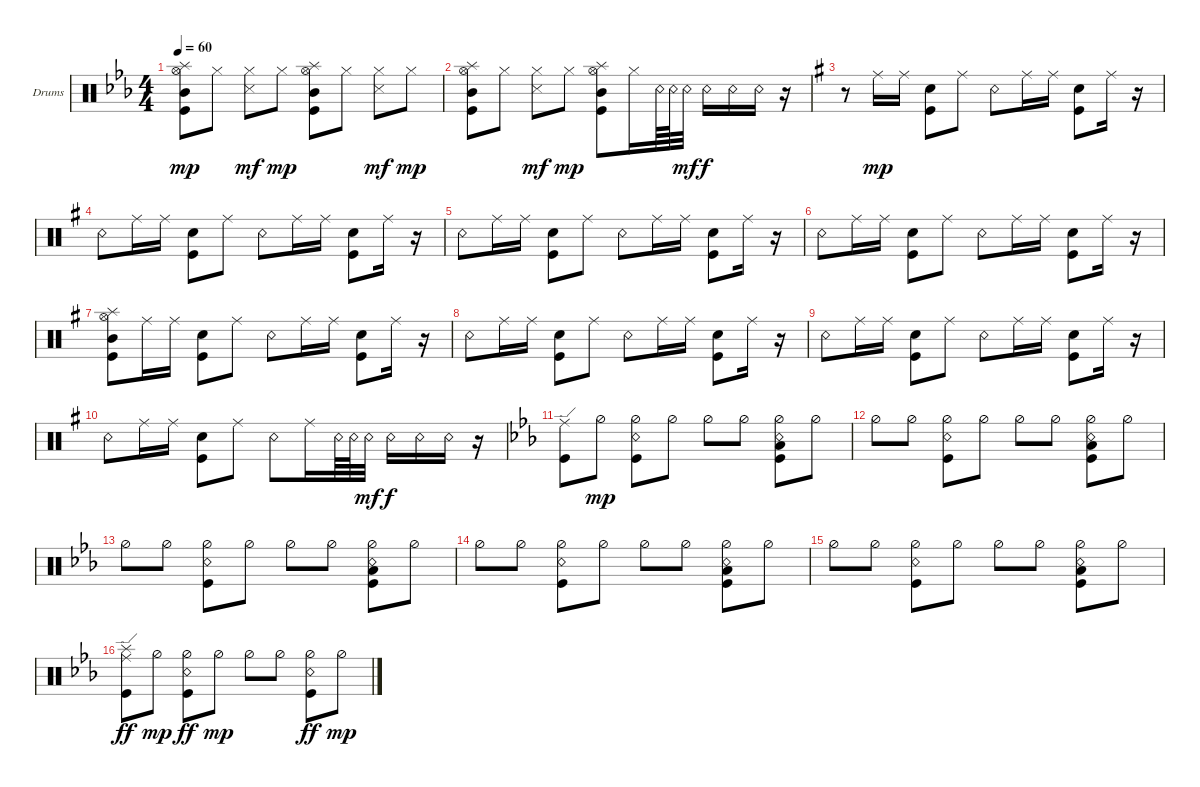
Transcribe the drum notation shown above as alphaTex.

\defaultSystemsLayout 4
\bracketExtendMode groupsimilarinstruments
\firstSystemTrackNameOrientation horizontal
\otherSystemsTrackNameOrientation horizontal
\track ("Drumkit (Darrell Sweet)" "Drums") {instrument percussion}
\staff {score}
\articulation defaults
\ts (4 4)
\tempo 60
\clef neutral
\ks cminor
("Kick (hit)" "Hi-Hat (open)" "Splash (hit)" "Mid Tom (hit)").8{dy mp} "Hi-Hat (closed)".8 ("Hi-Hat (closed)" "Snare (side stick) 3").8{dy mf} "Hi-Hat (closed)".8{dy mp} ("Kick (hit)" "Hi-Hat (open)" "Splash (hit)" "Mid Tom (hit)").8 "Hi-Hat (closed)".8 ("Hi-Hat (closed)" "Snare (side stick) 3").8{dy mf} "Hi-Hat (closed)".8{dy mp} |
("Kick (hit)" "Hi-Hat (open)" "Splash (hit)" "Mid Tom (hit)").8 "Hi-Hat (closed)".8 ("Hi-Hat (closed)" "Snare (side stick) 3").8{dy mf} "Hi-Hat (closed)".8{dy mp} ("Kick (hit)" "Hi-Hat (open)" "Splash (hit)" "Mid Tom (hit)").8 "Hi-Hat (closed)".16 "Snare (rim shot)".64 "Snare (rim shot)".64 "Snare (rim shot)".32{dy mf} "Snare (rim shot)".16{dy f} "Snare (rim shot)".16 "Snare (rim shot)".16 r.16 |
\ks eminor
r.8 "Ride (middle)".16{dy mp} "Ride (middle)".16 ("Snare (hit) 2" "Kick (hit)").8 "Ride (middle)".8 "Snare (rim shot)".8 "Ride (middle)".16 "Ride (middle)".16 ("Snare (hit) 2" "Kick (hit)").8 "Ride (middle)".16 r.16 |
"Snare (rim shot)".8 "Ride (middle)".16 "Ride (middle)".16 ("Snare (hit) 2" "Kick (hit)").8 "Ride (middle)".8 "Snare (rim shot)".8 "Ride (middle)".16 "Ride (middle)".16 ("Snare (hit) 2" "Kick (hit)").8 "Ride (middle)".16 r.16 |
"Snare (rim shot)".8 "Ride (middle)".16 "Ride (middle)".16 ("Snare (hit) 2" "Kick (hit)").8 "Ride (middle)".8 "Snare (rim shot)".8 "Ride (middle)".16 "Ride (middle)".16 ("Snare (hit) 2" "Kick (hit)").8 "Ride (middle)".16 r.16 |
"Snare (rim shot)".8 "Ride (middle)".16 "Ride (middle)".16 ("Snare (hit) 2" "Kick (hit)").8 "Ride (middle)".8 "Snare (rim shot)".8 "Ride (middle)".16 "Ride (middle)".16 ("Snare (hit) 2" "Kick (hit)").8 "Ride (middle)".16 r.16 |
("Kick (hit)" "Hi-Hat (open)" "Splash (hit)" "Mid Tom (hit)").8 "Ride (middle)".16 "Ride (middle)".16 ("Snare (hit) 2" "Kick (hit)").8 "Ride (middle)".8 "Snare (rim shot)".8 "Ride (middle)".16 "Ride (middle)".16 ("Snare (hit) 2" "Kick (hit)").8 "Ride (middle)".16 r.16 |
"Snare (rim shot)".8 "Ride (middle)".16 "Ride (middle)".16 ("Snare (hit) 2" "Kick (hit)").8 "Ride (middle)".8 "Snare (rim shot)".8 "Ride (middle)".16 "Ride (middle)".16 ("Snare (hit) 2" "Kick (hit)").8 "Ride (middle)".16 r.16 |
"Snare (rim shot)".8 "Ride (middle)".16 "Ride (middle)".16 ("Snare (hit) 2" "Kick (hit)").8 "Ride (middle)".8 "Snare (rim shot)".8 "Ride (middle)".16 "Ride (middle)".16 ("Snare (hit) 2" "Kick (hit)").8 "Ride (middle)".16 r.16 |
"Snare (rim shot)".8 "Ride (middle)".16 "Ride (middle)".16 ("Snare (hit) 2" "Kick (hit)").8 "Ride (middle)".8 "Snare (rim shot)".8 "Ride (middle)".16 "Snare (rim shot)".64 "Snare (rim shot)".64 "Snare (rim shot)".32{dy mf} "Snare (rim shot)".16{dy f} "Snare (rim shot)".16 "Snare (rim shot)".16 r.16 |
\ks cminor
("Kick (hit)" "Ride (edge)").8 "Hi-Hat (half)".8{dy mp} ("Hi-Hat (half)" "Kick (hit)" "Snare (rim shot)").8 "Hi-Hat (half)".8 "Hi-Hat (half)".8 "Hi-Hat (half)".8 ("Hi-Hat (half)" "Kick (hit)" "Low Tom (hit)" "Snare (rim shot)").8 "Hi-Hat (half)".8 |
"Hi-Hat (half)".8 "Hi-Hat (half)".8 ("Hi-Hat (half)" "Kick (hit)" "Snare (rim shot)").8 "Hi-Hat (half)".8 "Hi-Hat (half)".8 "Hi-Hat (half)".8 ("Hi-Hat (half)" "Low Tom (hit)" "Kick (hit)" "Snare (rim shot)").8 "Hi-Hat (half)".8 |
"Hi-Hat (half)".8 "Hi-Hat (half)".8 ("Hi-Hat (half)" "Kick (hit)" "Snare (rim shot)").8 "Hi-Hat (half)".8 "Hi-Hat (half)".8 "Hi-Hat (half)".8 ("Hi-Hat (half)" "Low Tom (hit)" "Kick (hit)" "Snare (rim shot)").8 "Hi-Hat (half)".8 |
"Hi-Hat (half)".8 "Hi-Hat (half)".8 ("Hi-Hat (half)" "Kick (hit)" "Snare (rim shot)").8 "Hi-Hat (half)".8 "Hi-Hat (half)".8 "Hi-Hat (half)".8 ("Hi-Hat (half)" "Low Tom (hit)" "Kick (hit)" "Snare (rim shot)").8 "Hi-Hat (half)".8 |
"Hi-Hat (half)".8 "Hi-Hat (half)".8 ("Hi-Hat (half)" "Kick (hit)" "Snare (rim shot)").8 "Hi-Hat (half)".8 "Hi-Hat (half)".8 "Hi-Hat (half)".8 ("Hi-Hat (half)" "Low Tom (hit)" "Kick (hit)" "Snare (rim shot)").8 "Hi-Hat (half)".8 |
("Splash (hit)" "Kick (hit)" "Ride (edge)").8{dy ff} "Hi-Hat (half)".8{dy mp} ("Hi-Hat (half)" "Kick (hit)" "Snare (rim shot)").8{dy ff} "Hi-Hat (half)".8{dy mp} "Hi-Hat (half)".8 "Hi-Hat (half)".8 ("Hi-Hat (half)" "Kick (hit)" "Snare (rim shot)").8{dy ff} "Hi-Hat (half)".8{dy mp}
